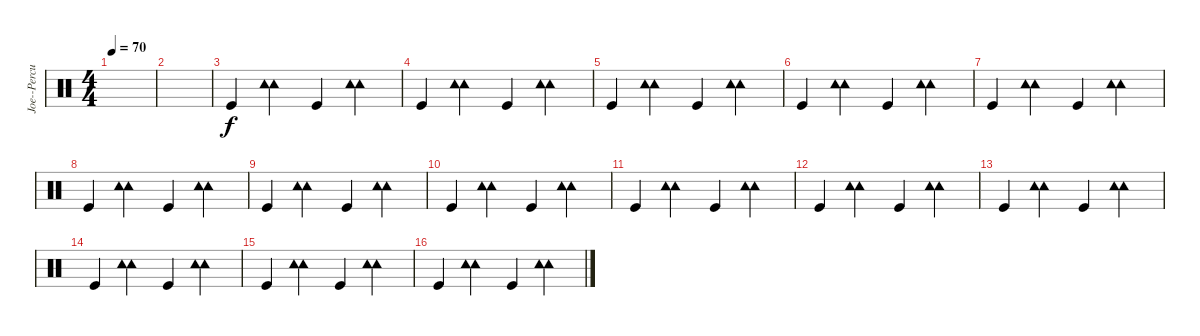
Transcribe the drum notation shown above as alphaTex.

\track ("Joe--Percussion" "Joe--Percu") {instrument percussion}
\staff {score}
\articulation defaults
\ts (4 4)
\tempo 70
\clef neutral
\ks c
|
|
"Kick (hit)".4 ("Tambourine (hit)" "Tambourine (hit)").4 "Kick (hit)".4 ("Tambourine (hit)" "Tambourine (hit)").4 |
"Kick (hit)".4 ("Tambourine (hit)" "Tambourine (hit)").4 "Kick (hit)".4 ("Tambourine (hit)" "Tambourine (hit)").4 |
"Kick (hit)".4 ("Tambourine (hit)" "Tambourine (hit)").4 "Kick (hit)".4 ("Tambourine (hit)" "Tambourine (hit)").4 |
"Kick (hit)".4 ("Tambourine (hit)" "Tambourine (hit)").4 "Kick (hit)".4 ("Tambourine (hit)" "Tambourine (hit)").4 |
"Kick (hit)".4 ("Tambourine (hit)" "Tambourine (hit)").4 "Kick (hit)".4 ("Tambourine (hit)" "Tambourine (hit)").4 |
"Kick (hit)".4 ("Tambourine (hit)" "Tambourine (hit)").4 "Kick (hit)".4 ("Tambourine (hit)" "Tambourine (hit)").4 |
"Kick (hit)".4 ("Tambourine (hit)" "Tambourine (hit)").4 "Kick (hit)".4 ("Tambourine (hit)" "Tambourine (hit)").4 |
"Kick (hit)".4 ("Tambourine (hit)" "Tambourine (hit)").4 "Kick (hit)".4 ("Tambourine (hit)" "Tambourine (hit)").4 |
"Kick (hit)".4 ("Tambourine (hit)" "Tambourine (hit)").4 "Kick (hit)".4 ("Tambourine (hit)" "Tambourine (hit)").4 |
"Kick (hit)".4 ("Tambourine (hit)" "Tambourine (hit)").4 "Kick (hit)".4 ("Tambourine (hit)" "Tambourine (hit)").4 |
"Kick (hit)".4 ("Tambourine (hit)" "Tambourine (hit)").4 "Kick (hit)".4 ("Tambourine (hit)" "Tambourine (hit)").4 |
"Kick (hit)".4 ("Tambourine (hit)" "Tambourine (hit)").4 "Kick (hit)".4 ("Tambourine (hit)" "Tambourine (hit)").4 |
"Kick (hit)".4 ("Tambourine (hit)" "Tambourine (hit)").4 "Kick (hit)".4 ("Tambourine (hit)" "Tambourine (hit)").4 |
"Kick (hit)".4 ("Tambourine (hit)" "Tambourine (hit)").4 "Kick (hit)".4 ("Tambourine (hit)" "Tambourine (hit)").4
